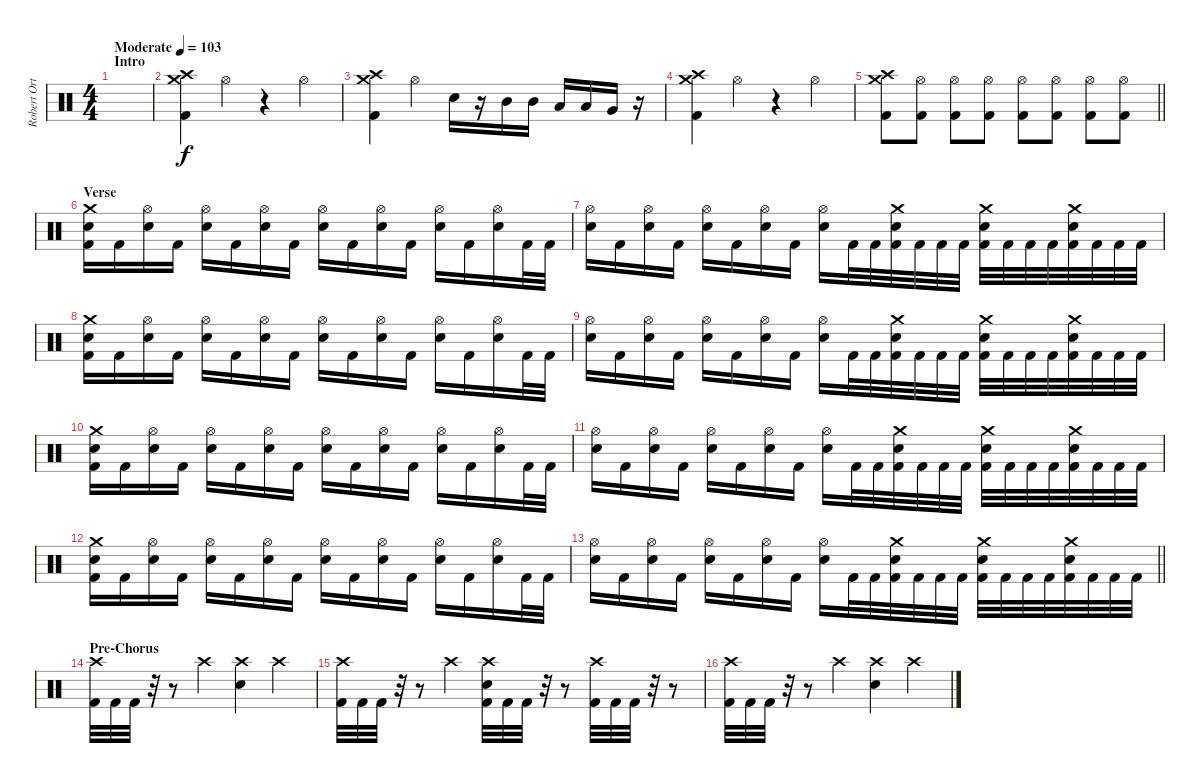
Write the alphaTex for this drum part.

\track ("Robert Ortiz - Drums" "Robert Ort") {instrument percussion}
\staff {score}
\articulation defaults
\ts (4 4)
\section ("" "Intro")
\tempo (103 "Moderate")
\clef neutral
\ks c
|
("Crash medium (hit)" "Crash high (hit)" "Kick (hit) 2").4 "Hi-Hat (open)".4 r.4 "Hi-Hat (open)".4 |
("Crash medium (hit)" "Crash high (hit)" "Kick (hit) 2").4 "Hi-Hat (open)".4 "Electric Snare (hit)".16 r.16 "Mid Tom (hit)".16 "Mid Tom (hit)".16 "Low Tom (hit)".16 "Low Tom (hit)".16 "Very Low Tom (hit)".16 r.16 |
("Crash medium (hit)" "Crash high (hit)" "Kick (hit) 2").4 "Hi-Hat (open)".4 r.4 "Hi-Hat (open)".4 |
\barLineRight lightlight
("Crash medium (hit)" "Crash high (hit)" "Kick (hit) 2").8 ("Hi-Hat (open)" "Kick (hit) 2").8 ("Hi-Hat (open)" "Kick (hit) 2").8 ("Hi-Hat (open)" "Kick (hit) 2").8 ("Hi-Hat (open)" "Kick (hit) 2").8 ("Hi-Hat (open)" "Kick (hit) 2").8 ("Hi-Hat (open)" "Kick (hit) 2").8 ("Hi-Hat (open)" "Kick (hit) 2").8 |
\section ("" "Verse")
("Crash medium (hit)" "Electric Snare (hit)" "Kick (hit) 2").16 "Kick (hit) 2".16 ("Hi-Hat (open)" "Electric Snare (hit)").16 "Kick (hit) 2".16 ("Hi-Hat (open)" "Electric Snare (hit)").16 "Kick (hit) 2".16 ("Hi-Hat (open)" "Electric Snare (hit)").16 "Kick (hit) 2".16 ("Hi-Hat (open)" "Electric Snare (hit)").16 "Kick (hit) 2".16 ("Hi-Hat (open)" "Electric Snare (hit)").16 "Kick (hit) 2".16 ("Hi-Hat (open)" "Electric Snare (hit)").16 "Kick (hit) 2".16 ("Hi-Hat (open)" "Electric Snare (hit)").16 "Kick (hit) 2".32 "Kick (hit) 2".32 |
("Hi-Hat (open)" "Electric Snare (hit)").16 "Kick (hit) 2".16 ("Hi-Hat (open)" "Electric Snare (hit)").16 "Kick (hit) 2".16 ("Hi-Hat (open)" "Electric Snare (hit)").16 "Kick (hit) 2".16 ("Hi-Hat (open)" "Electric Snare (hit)").16 "Kick (hit) 2".16 ("Hi-Hat (open)" "Electric Snare (hit)").16 "Kick (hit) 2".32 "Kick (hit) 2".32 ("Crash medium (hit)" "Electric Snare (hit)" "Kick (hit) 2").32 "Kick (hit) 2".32 "Kick (hit) 2".32 "Kick (hit) 2".32 ("Crash medium (hit)" "Electric Snare (hit)" "Kick (hit) 2").32 "Kick (hit) 2".32 "Kick (hit) 2".32 "Kick (hit) 2".32 ("Crash medium (hit)" "Electric Snare (hit)" "Kick (hit) 2").32 "Kick (hit) 2".32 "Kick (hit) 2".32 "Kick (hit) 2".32 |
("Crash medium (hit)" "Electric Snare (hit)" "Kick (hit) 2").16 "Kick (hit) 2".16 ("Hi-Hat (open)" "Electric Snare (hit)").16 "Kick (hit) 2".16 ("Hi-Hat (open)" "Electric Snare (hit)").16 "Kick (hit) 2".16 ("Hi-Hat (open)" "Electric Snare (hit)").16 "Kick (hit) 2".16 ("Hi-Hat (open)" "Electric Snare (hit)").16 "Kick (hit) 2".16 ("Hi-Hat (open)" "Electric Snare (hit)").16 "Kick (hit) 2".16 ("Hi-Hat (open)" "Electric Snare (hit)").16 "Kick (hit) 2".16 ("Hi-Hat (open)" "Electric Snare (hit)").16 "Kick (hit) 2".32 "Kick (hit) 2".32 |
("Hi-Hat (open)" "Electric Snare (hit)").16 "Kick (hit) 2".16 ("Hi-Hat (open)" "Electric Snare (hit)").16 "Kick (hit) 2".16 ("Hi-Hat (open)" "Electric Snare (hit)").16 "Kick (hit) 2".16 ("Hi-Hat (open)" "Electric Snare (hit)").16 "Kick (hit) 2".16 ("Hi-Hat (open)" "Electric Snare (hit)").16 "Kick (hit) 2".32 "Kick (hit) 2".32 ("Crash medium (hit)" "Electric Snare (hit)" "Kick (hit) 2").32 "Kick (hit) 2".32 "Kick (hit) 2".32 "Kick (hit) 2".32 ("Crash medium (hit)" "Electric Snare (hit)" "Kick (hit) 2").32 "Kick (hit) 2".32 "Kick (hit) 2".32 "Kick (hit) 2".32 ("Crash medium (hit)" "Electric Snare (hit)" "Kick (hit) 2").32 "Kick (hit) 2".32 "Kick (hit) 2".32 "Kick (hit) 2".32 |
("Crash medium (hit)" "Electric Snare (hit)" "Kick (hit) 2").16 "Kick (hit) 2".16 ("Hi-Hat (open)" "Electric Snare (hit)").16 "Kick (hit) 2".16 ("Hi-Hat (open)" "Electric Snare (hit)").16 "Kick (hit) 2".16 ("Hi-Hat (open)" "Electric Snare (hit)").16 "Kick (hit) 2".16 ("Hi-Hat (open)" "Electric Snare (hit)").16 "Kick (hit) 2".16 ("Hi-Hat (open)" "Electric Snare (hit)").16 "Kick (hit) 2".16 ("Hi-Hat (open)" "Electric Snare (hit)").16 "Kick (hit) 2".16 ("Hi-Hat (open)" "Electric Snare (hit)").16 "Kick (hit) 2".32 "Kick (hit) 2".32 |
("Hi-Hat (open)" "Electric Snare (hit)").16 "Kick (hit) 2".16 ("Hi-Hat (open)" "Electric Snare (hit)").16 "Kick (hit) 2".16 ("Hi-Hat (open)" "Electric Snare (hit)").16 "Kick (hit) 2".16 ("Hi-Hat (open)" "Electric Snare (hit)").16 "Kick (hit) 2".16 ("Hi-Hat (open)" "Electric Snare (hit)").16 "Kick (hit) 2".32 "Kick (hit) 2".32 ("Crash medium (hit)" "Electric Snare (hit)" "Kick (hit) 2").32 "Kick (hit) 2".32 "Kick (hit) 2".32 "Kick (hit) 2".32 ("Crash medium (hit)" "Electric Snare (hit)" "Kick (hit) 2").32 "Kick (hit) 2".32 "Kick (hit) 2".32 "Kick (hit) 2".32 ("Crash medium (hit)" "Electric Snare (hit)" "Kick (hit) 2").32 "Kick (hit) 2".32 "Kick (hit) 2".32 "Kick (hit) 2".32 |
("Crash medium (hit)" "Electric Snare (hit)" "Kick (hit) 2").16 "Kick (hit) 2".16 ("Hi-Hat (open)" "Electric Snare (hit)").16 "Kick (hit) 2".16 ("Hi-Hat (open)" "Electric Snare (hit)").16 "Kick (hit) 2".16 ("Hi-Hat (open)" "Electric Snare (hit)").16 "Kick (hit) 2".16 ("Hi-Hat (open)" "Electric Snare (hit)").16 "Kick (hit) 2".16 ("Hi-Hat (open)" "Electric Snare (hit)").16 "Kick (hit) 2".16 ("Hi-Hat (open)" "Electric Snare (hit)").16 "Kick (hit) 2".16 ("Hi-Hat (open)" "Electric Snare (hit)").16 "Kick (hit) 2".32 "Kick (hit) 2".32 |
\barLineRight lightlight
("Hi-Hat (open)" "Electric Snare (hit)").16 "Kick (hit) 2".16 ("Hi-Hat (open)" "Electric Snare (hit)").16 "Kick (hit) 2".16 ("Hi-Hat (open)" "Electric Snare (hit)").16 "Kick (hit) 2".16 ("Hi-Hat (open)" "Electric Snare (hit)").16 "Kick (hit) 2".16 ("Hi-Hat (open)" "Electric Snare (hit)").16 "Kick (hit) 2".32 "Kick (hit) 2".32 ("Crash medium (hit)" "Electric Snare (hit)" "Kick (hit) 2").32 "Kick (hit) 2".32 "Kick (hit) 2".32 "Kick (hit) 2".32 ("Crash medium (hit)" "Electric Snare (hit)" "Kick (hit) 2").32 "Kick (hit) 2".32 "Kick (hit) 2".32 "Kick (hit) 2".32 ("Crash medium (hit)" "Electric Snare (hit)" "Kick (hit) 2").32 "Kick (hit) 2".32 "Kick (hit) 2".32 "Kick (hit) 2".32 |
\section ("" "Pre-Chorus")
("Crash high (hit)" "Kick (hit) 2").32 "Kick (hit) 2".32 "Kick (hit) 2".32 r.32 r.8 "Crash high (hit)".4 ("Crash high (hit)" "Electric Snare (hit)").4 "Crash high (hit)".4 |
("Crash high (hit)" "Kick (hit) 2").32 "Kick (hit) 2".32 "Kick (hit) 2".32 r.32 r.8 "Crash high (hit)".4 ("Crash high (hit)" "Electric Snare (hit)" "Kick (hit) 2").32 "Kick (hit) 2".32 "Kick (hit) 2".32 r.32 r.8 ("Crash high (hit)" "Kick (hit) 2").32 "Kick (hit) 2".32 "Kick (hit) 2".32 r.32 r.8 |
("Crash high (hit)" "Kick (hit) 2").32 "Kick (hit) 2".32 "Kick (hit) 2".32 r.32 r.8 "Crash high (hit)".4 ("Crash high (hit)" "Electric Snare (hit)").4 "Crash high (hit)".4
